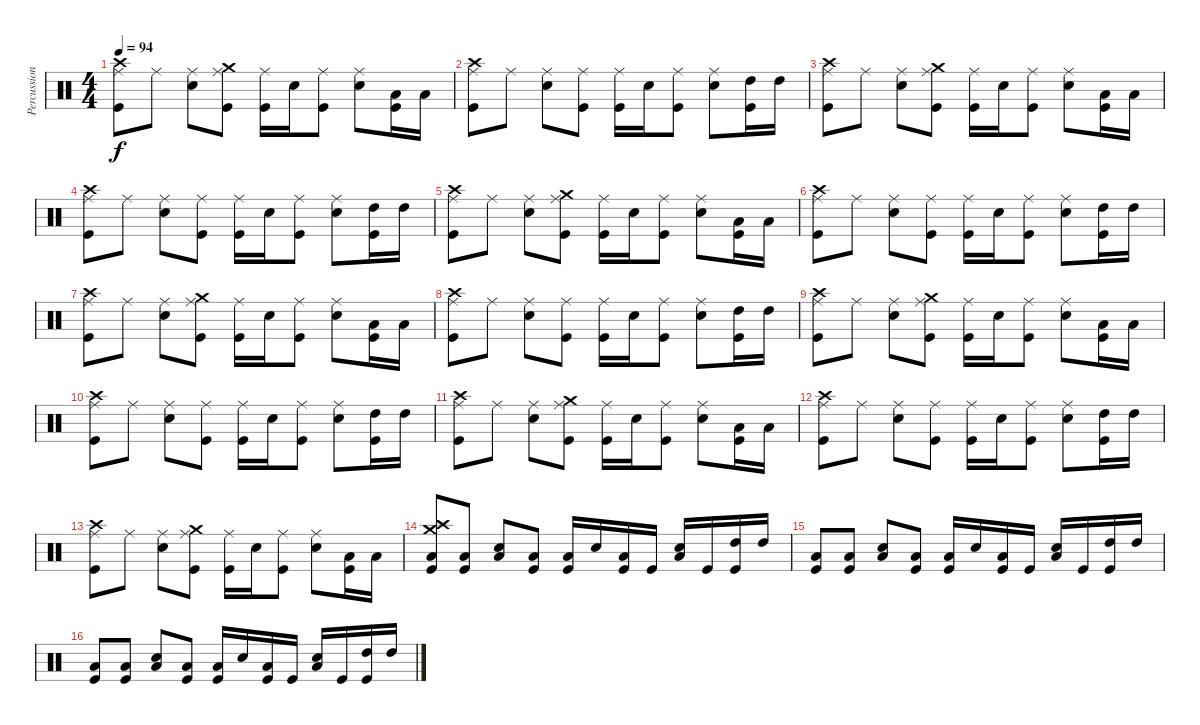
\track ("Percussions" "Percussion") {instrument percussion}
\staff {score}
\articulation defaults
\ts (4 4)
\tempo 94
\clef neutral
\ks c
("Kick (hit)" "Crash high (hit)" "Ride (middle)").8{dy f} "Ride (middle)".8 ("Electric Snare (hit)" "Ride (middle)").8 ("Crash medium (hit)" "Kick (hit)" "Ride (middle)").8 ("Kick (hit)" "Ride (middle)").16 "Electric Snare (hit)".16 ("Kick (hit)" "Ride (middle)").8 ("Electric Snare (hit)" "Ride (middle)").8 ("Low Floor Tom (hit)" "Kick (hit)").16 "Low Floor Tom (hit)".16 |
("Kick (hit)" "Crash high (hit)" "Ride (middle)").8 "Ride (middle)".8 ("Electric Snare (hit)" "Ride (middle)").8 ("Kick (hit)" "Ride (middle)").8 ("Kick (hit)" "Ride (middle)").16 "Electric Snare (hit)".16 ("Kick (hit)" "Ride (middle)").8 ("Electric Snare (hit)" "Ride (middle)").8 ("High Tom (hit)" "Kick (hit)").16 "High Tom (hit)".16 |
("Kick (hit)" "Crash high (hit)" "Ride (middle)").8 "Ride (middle)".8 ("Electric Snare (hit)" "Ride (middle)").8 ("Crash medium (hit)" "Kick (hit)" "Ride (middle)").8 ("Kick (hit)" "Ride (middle)").16 "Electric Snare (hit)".16 ("Kick (hit)" "Ride (middle)").8 ("Electric Snare (hit)" "Ride (middle)").8 ("Low Floor Tom (hit)" "Kick (hit)").16 "Low Floor Tom (hit)".16 |
("Kick (hit)" "Crash high (hit)" "Ride (middle)").8 "Ride (middle)".8 ("Electric Snare (hit)" "Ride (middle)").8 ("Kick (hit)" "Ride (middle)").8 ("Kick (hit)" "Ride (middle)").16 "Electric Snare (hit)".16 ("Kick (hit)" "Ride (middle)").8 ("Electric Snare (hit)" "Ride (middle)").8 ("High Tom (hit)" "Kick (hit)").16 "High Tom (hit)".16 |
("Kick (hit)" "Crash high (hit)" "Ride (middle)").8 "Ride (middle)".8 ("Electric Snare (hit)" "Ride (middle)").8 ("Crash medium (hit)" "Kick (hit)" "Ride (middle)").8 ("Kick (hit)" "Ride (middle)").16 "Electric Snare (hit)".16 ("Kick (hit)" "Ride (middle)").8 ("Electric Snare (hit)" "Ride (middle)").8 ("Low Floor Tom (hit)" "Kick (hit)").16 "Low Floor Tom (hit)".16 |
("Kick (hit)" "Crash high (hit)" "Ride (middle)").8 "Ride (middle)".8 ("Electric Snare (hit)" "Ride (middle)").8 ("Kick (hit)" "Ride (middle)").8 ("Kick (hit)" "Ride (middle)").16 "Electric Snare (hit)".16 ("Kick (hit)" "Ride (middle)").8 ("Electric Snare (hit)" "Ride (middle)").8 ("High Tom (hit)" "Kick (hit)").16 "High Tom (hit)".16 |
("Kick (hit)" "Crash high (hit)" "Ride (middle)").8 "Ride (middle)".8 ("Electric Snare (hit)" "Ride (middle)").8 ("Crash medium (hit)" "Kick (hit)" "Ride (middle)").8 ("Kick (hit)" "Ride (middle)").16 "Electric Snare (hit)".16 ("Kick (hit)" "Ride (middle)").8 ("Electric Snare (hit)" "Ride (middle)").8 ("Low Floor Tom (hit)" "Kick (hit)").16 "Low Floor Tom (hit)".16 |
("Kick (hit)" "Crash high (hit)" "Ride (middle)").8 "Ride (middle)".8 ("Electric Snare (hit)" "Ride (middle)").8 ("Kick (hit)" "Ride (middle)").8 ("Kick (hit)" "Ride (middle)").16 "Electric Snare (hit)".16 ("Kick (hit)" "Ride (middle)").8 ("Electric Snare (hit)" "Ride (middle)").8 ("High Tom (hit)" "Kick (hit)").16 "High Tom (hit)".16 |
("Kick (hit)" "Crash high (hit)" "Ride (middle)").8 "Ride (middle)".8 ("Electric Snare (hit)" "Ride (middle)").8 ("Crash medium (hit)" "Kick (hit)" "Ride (middle)").8 ("Kick (hit)" "Ride (middle)").16 "Electric Snare (hit)".16 ("Kick (hit)" "Ride (middle)").8 ("Electric Snare (hit)" "Ride (middle)").8 ("Low Floor Tom (hit)" "Kick (hit)").16 "Low Floor Tom (hit)".16 |
("Kick (hit)" "Crash high (hit)" "Ride (middle)").8 "Ride (middle)".8 ("Electric Snare (hit)" "Ride (middle)").8 ("Kick (hit)" "Ride (middle)").8 ("Kick (hit)" "Ride (middle)").16 "Electric Snare (hit)".16 ("Kick (hit)" "Ride (middle)").8 ("Electric Snare (hit)" "Ride (middle)").8 ("High Tom (hit)" "Kick (hit)").16 "High Tom (hit)".16 |
("Kick (hit)" "Crash high (hit)" "Ride (middle)").8 "Ride (middle)".8 ("Electric Snare (hit)" "Ride (middle)").8 ("Crash medium (hit)" "Kick (hit)" "Ride (middle)").8 ("Kick (hit)" "Ride (middle)").16 "Electric Snare (hit)".16 ("Kick (hit)" "Ride (middle)").8 ("Electric Snare (hit)" "Ride (middle)").8 ("Low Floor Tom (hit)" "Kick (hit)").16 "Low Floor Tom (hit)".16 |
("Kick (hit)" "Crash high (hit)" "Ride (middle)").8 "Ride (middle)".8 ("Electric Snare (hit)" "Ride (middle)").8 ("Kick (hit)" "Ride (middle)").8 ("Kick (hit)" "Ride (middle)").16 "Electric Snare (hit)".16 ("Kick (hit)" "Ride (middle)").8 ("Electric Snare (hit)" "Ride (middle)").8 ("High Tom (hit)" "Kick (hit)").16 "High Tom (hit)".16 |
("Kick (hit)" "Crash high (hit)" "Ride (middle)").8 "Ride (middle)".8 ("Electric Snare (hit)" "Ride (middle)").8 ("Crash medium (hit)" "Kick (hit)" "Ride (middle)").8 ("Kick (hit)" "Ride (middle)").16 "Electric Snare (hit)".16 ("Kick (hit)" "Ride (middle)").8 ("Electric Snare (hit)" "Ride (middle)").8 ("Low Floor Tom (hit)" "Kick (hit)").16 "Low Floor Tom (hit)".16 |
("Crash high (hit)" "Crash medium (hit)" "Kick (hit)" "Low Floor Tom (hit)").8 ("Kick (hit)" "Low Floor Tom (hit)").8 ("Electric Snare (hit)" "Low Floor Tom (hit)").8 ("Kick (hit)" "Low Floor Tom (hit)").8 ("Kick (hit)" "Low Floor Tom (hit)").16 "Electric Snare (hit)".16 ("Kick (hit)" "Low Floor Tom (hit)").16 "Kick (hit)".16 ("Electric Snare (hit)" "Low Floor Tom (hit)").16 "Kick (hit)".16 ("High Tom (hit)" "Kick (hit)").16 "High Tom (hit)".16 |
("Kick (hit)" "Low Floor Tom (hit)").8 ("Kick (hit)" "Low Floor Tom (hit)").8 ("Electric Snare (hit)" "Low Floor Tom (hit)").8 ("Kick (hit)" "Low Floor Tom (hit)").8 ("Kick (hit)" "Low Floor Tom (hit)").16 "Electric Snare (hit)".16 ("Kick (hit)" "Low Floor Tom (hit)").16 "Kick (hit)".16 ("Electric Snare (hit)" "Low Floor Tom (hit)").16 "Kick (hit)".16 ("High Tom (hit)" "Kick (hit)").16 "High Tom (hit)".16 |
("Kick (hit)" "Low Floor Tom (hit)").8 ("Kick (hit)" "Low Floor Tom (hit)").8 ("Electric Snare (hit)" "Low Floor Tom (hit)").8 ("Kick (hit)" "Low Floor Tom (hit)").8 ("Kick (hit)" "Low Floor Tom (hit)").16 "Electric Snare (hit)".16 ("Kick (hit)" "Low Floor Tom (hit)").16 "Kick (hit)".16 ("Electric Snare (hit)" "Low Floor Tom (hit)").16 "Kick (hit)".16 ("High Tom (hit)" "Kick (hit)").16 "High Tom (hit)".16
